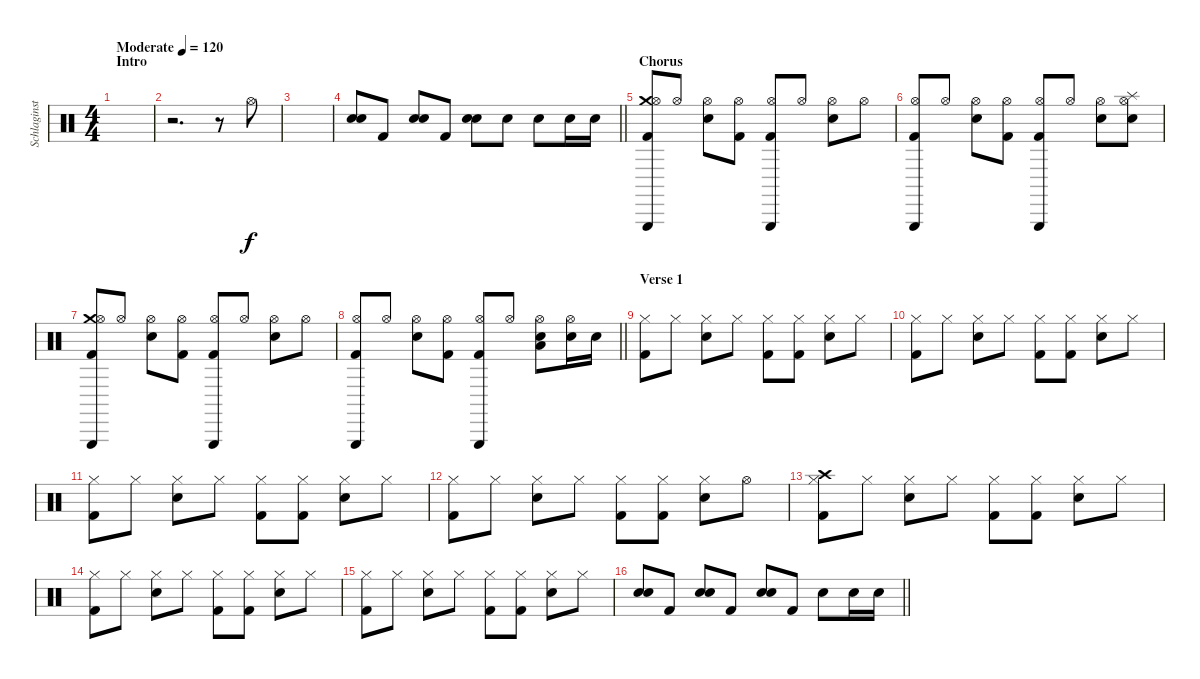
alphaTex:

\track ("Schlaginstrumente - Auswahl" "Schlaginst") {instrument percussion}
\staff {score}
\articulation defaults
\ts (4 4)
\section ("" "Intro")
\tempo (120 "Moderate")
\clef neutral
\ks c
|
r.2{d} r.8 "Hi-Hat (open)".8 |
|
\barLineRight lightlight
("Snare (hit) 2" "Electric Snare (hit)").8 "Kick (hit) 2".8 ("Snare (hit) 2" "Electric Snare (hit)").8 "Kick (hit) 2".8 ("Snare (hit) 2" "Electric Snare (hit)").8 "Electric Snare (hit)".8 "Snare (hit) 2".8 "Snare (hit) 2".16 "Snare (hit) 2".16 |
\section ("" "Chorus")
("Crash medium (hit)" "Triangle (hit)" "Hi-Hat (open)" "Kick (hit) 2").8 "Hi-Hat (open)".8 ("Hi-Hat (open)" "Snare (hit) 2").8 ("Hi-Hat (open)" "Kick (hit) 2").8 ("Triangle (hit)" "Hi-Hat (open)" "Kick (hit) 2").8 "Hi-Hat (open)".8 ("Hi-Hat (open)" "Snare (hit) 2").8 "Hi-Hat (open)".8 |
("Triangle (hit)" "Hi-Hat (open)" "Kick (hit) 2").8 "Hi-Hat (open)".8 ("Hi-Hat (open)" "Snare (hit) 2").8 ("Hi-Hat (open)" "Kick (hit) 2").8 ("Triangle (hit)" "Hi-Hat (open)" "Kick (hit) 2").8 "Hi-Hat (open)".8 ("Hi-Hat (open)" "Snare (hit) 2").8 ("Splash (hit)" "Hi-Hat (open)" "Snare (hit) 2").8 |
("Crash medium (hit)" "Triangle (hit)" "Hi-Hat (open)" "Kick (hit) 2").8 "Hi-Hat (open)".8 ("Hi-Hat (open)" "Snare (hit) 2").8 ("Hi-Hat (open)" "Kick (hit) 2").8 ("Triangle (hit)" "Hi-Hat (open)" "Kick (hit) 2").8 "Hi-Hat (open)".8 ("Hi-Hat (open)" "Snare (hit) 2").8 "Hi-Hat (open)".8 |
\barLineRight lightlight
("Triangle (hit)" "Hi-Hat (open)" "Kick (hit) 2").8 "Hi-Hat (open)".8 ("Hi-Hat (open)" "Snare (hit) 2").8 ("Hi-Hat (open)" "Kick (hit) 2").8 ("Triangle (hit)" "Hi-Hat (open)" "Kick (hit) 2").8 "Hi-Hat (open)".8 ("Low Tom (hit)" "Hi-Hat (open)" "Snare (hit) 2").8 ("Hi-Hat (open)" "Snare (hit) 2").16 "Snare (hit) 2".16 |
\section ("" "Verse 1")
("Hi-Hat (closed)" "Kick (hit) 2").8 "Hi-Hat (closed)".8 ("Hi-Hat (closed)" "Snare (hit) 2").8 "Hi-Hat (closed)".8 ("Hi-Hat (closed)" "Kick (hit) 2").8 ("Hi-Hat (closed)" "Kick (hit) 2").8 ("Hi-Hat (closed)" "Snare (hit) 2").8 "Hi-Hat (closed)".8 |
("Hi-Hat (closed)" "Kick (hit) 2").8 "Hi-Hat (closed)".8 ("Hi-Hat (closed)" "Snare (hit) 2").8 "Hi-Hat (closed)".8 ("Hi-Hat (closed)" "Kick (hit) 2").8 ("Hi-Hat (closed)" "Kick (hit) 2").8 ("Hi-Hat (closed)" "Snare (hit) 2").8 "Hi-Hat (closed)".8 |
("Hi-Hat (closed)" "Kick (hit) 2").8 "Hi-Hat (closed)".8 ("Hi-Hat (closed)" "Snare (hit) 2").8 "Hi-Hat (closed)".8 ("Hi-Hat (closed)" "Kick (hit) 2").8 ("Hi-Hat (closed)" "Kick (hit) 2").8 ("Hi-Hat (closed)" "Snare (hit) 2").8 "Hi-Hat (closed)".8 |
("Hi-Hat (closed)" "Kick (hit) 2").8 "Hi-Hat (closed)".8 ("Hi-Hat (closed)" "Snare (hit) 2").8 "Hi-Hat (closed)".8 ("Hi-Hat (closed)" "Kick (hit) 2").8 ("Hi-Hat (closed)" "Kick (hit) 2").8 ("Hi-Hat (closed)" "Snare (hit) 2").8 "Hi-Hat (open)".8 |
("Crash high (hit)" "Hi-Hat (closed)" "Kick (hit) 2").8 "Hi-Hat (closed)".8 ("Hi-Hat (closed)" "Snare (hit) 2").8 "Hi-Hat (closed)".8 ("Hi-Hat (closed)" "Kick (hit) 2").8 ("Hi-Hat (closed)" "Kick (hit) 2").8 ("Hi-Hat (closed)" "Snare (hit) 2").8 "Hi-Hat (closed)".8 |
("Hi-Hat (closed)" "Kick (hit) 2").8 "Hi-Hat (closed)".8 ("Hi-Hat (closed)" "Snare (hit) 2").8 "Hi-Hat (closed)".8 ("Hi-Hat (closed)" "Kick (hit) 2").8 ("Hi-Hat (closed)" "Kick (hit) 2").8 ("Hi-Hat (closed)" "Snare (hit) 2").8 "Hi-Hat (closed)".8 |
("Hi-Hat (closed)" "Kick (hit) 2").8 "Hi-Hat (closed)".8 ("Hi-Hat (closed)" "Snare (hit) 2").8 "Hi-Hat (closed)".8 ("Hi-Hat (closed)" "Kick (hit) 2").8 ("Hi-Hat (closed)" "Kick (hit) 2").8 ("Hi-Hat (closed)" "Snare (hit) 2").8 "Hi-Hat (closed)".8 |
\barLineRight lightlight
("Snare (hit) 2" "Electric Snare (hit)").8 "Kick (hit) 2".8 ("Snare (hit) 2" "Electric Snare (hit)").8 "Kick (hit) 2".8 ("Snare (hit) 2" "Electric Snare (hit)").8 "Kick (hit) 2".8 "Snare (hit) 2".8 "Snare (hit) 2".16 "Snare (hit) 2".16
